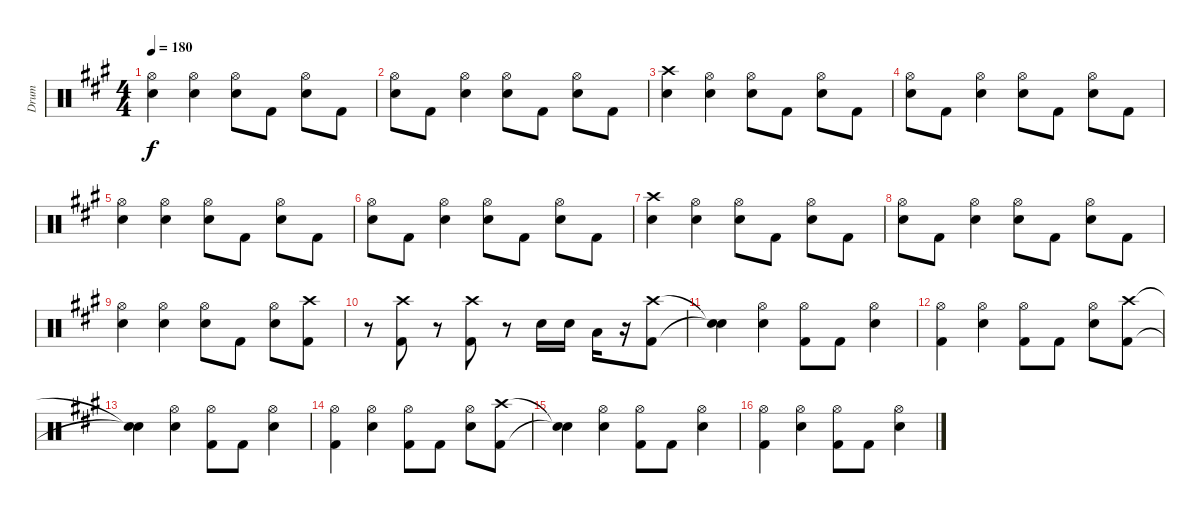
\track ("Drum" "Drum") {instrument percussion}
\staff {score}
\articulation defaults
\ts (4 4)
\tempo 180
\clef neutral
\ks a
("Hi-Hat (open)" "Snare (hit) 2").4{dy f} ("Hi-Hat (open)" "Snare (hit) 2").4 ("Hi-Hat (open)" "Snare (hit) 2").8 "Kick (hit) 2".8 ("Hi-Hat (open)" "Snare (hit) 2").8 "Kick (hit) 2".8 |
("Hi-Hat (open)" "Snare (hit) 2").8 "Kick (hit) 2".8 ("Hi-Hat (open)" "Snare (hit) 2").4 ("Hi-Hat (open)" "Snare (hit) 2").8 "Kick (hit) 2".8 ("Hi-Hat (open)" "Snare (hit) 2").8 "Kick (hit) 2".8 |
("Crash high (hit)" "Snare (hit) 2").4 ("Hi-Hat (open)" "Snare (hit) 2").4 ("Hi-Hat (open)" "Snare (hit) 2").8 "Kick (hit) 2".8 ("Hi-Hat (open)" "Snare (hit) 2").8 "Kick (hit) 2".8 |
("Hi-Hat (open)" "Snare (hit) 2").8 "Kick (hit) 2".8 ("Hi-Hat (open)" "Snare (hit) 2").4 ("Hi-Hat (open)" "Snare (hit) 2").8 "Kick (hit) 2".8 ("Hi-Hat (open)" "Snare (hit) 2").8 "Kick (hit) 2".8 |
("Hi-Hat (open)" "Snare (hit) 2").4 ("Hi-Hat (open)" "Snare (hit) 2").4 ("Hi-Hat (open)" "Snare (hit) 2").8 "Kick (hit) 2".8 ("Hi-Hat (open)" "Snare (hit) 2").8 "Kick (hit) 2".8 |
("Hi-Hat (open)" "Snare (hit) 2").8 "Kick (hit) 2".8 ("Hi-Hat (open)" "Snare (hit) 2").4 ("Hi-Hat (open)" "Snare (hit) 2").8 "Kick (hit) 2".8 ("Hi-Hat (open)" "Snare (hit) 2").8 "Kick (hit) 2".8 |
("Crash high (hit)" "Snare (hit) 2").4 ("Hi-Hat (open)" "Snare (hit) 2").4 ("Hi-Hat (open)" "Snare (hit) 2").8 "Kick (hit) 2".8 ("Hi-Hat (open)" "Snare (hit) 2").8 "Kick (hit) 2".8 |
("Hi-Hat (open)" "Snare (hit) 2").8 "Kick (hit) 2".8 ("Hi-Hat (open)" "Snare (hit) 2").4 ("Hi-Hat (open)" "Snare (hit) 2").8 "Kick (hit) 2".8 ("Hi-Hat (open)" "Snare (hit) 2").8 "Kick (hit) 2".8 |
("Hi-Hat (open)" "Snare (hit) 2").4 ("Hi-Hat (open)" "Snare (hit) 2").4 ("Hi-Hat (open)" "Snare (hit) 2").8 "Kick (hit) 2".8 ("Hi-Hat (open)" "Snare (hit) 2").8 ("Crash high (hit)" "Kick (hit) 2").8 |
r.8 ("Crash high (hit)" "Kick (hit) 2").8 r.8 ("Crash high (hit)" "Kick (hit) 2").8 r.8 "Snare (hit) 2".16 "Snare (hit) 2".16 "Low Tom (hit)".16 r.16 ("Crash high (hit)" "Kick (hit) 2").8 |
("Snare (hit)"{t} "Snare (hit)"{t}).4 ("Hi-Hat (open)" "Snare (hit) 2").4 ("Hi-Hat (open)" "Kick (hit) 2").8 "Kick (hit) 2".8 ("Hi-Hat (open)" "Snare (hit) 2").4 |
("Hi-Hat (open)" "Kick (hit) 2").4 ("Hi-Hat (open)" "Snare (hit) 2").4 ("Hi-Hat (open)" "Kick (hit) 2").8 "Kick (hit) 2".8 ("Hi-Hat (open)" "Snare (hit) 2").8 ("Crash high (hit)" "Kick (hit) 2").8 |
("Snare (hit)"{t} "Snare (hit)"{t}).4 ("Hi-Hat (open)" "Snare (hit) 2").4 ("Hi-Hat (open)" "Kick (hit) 2").8 "Kick (hit) 2".8 ("Hi-Hat (open)" "Snare (hit) 2").4 |
("Hi-Hat (open)" "Kick (hit) 2").4 ("Hi-Hat (open)" "Snare (hit) 2").4 ("Hi-Hat (open)" "Kick (hit) 2").8 "Kick (hit) 2".8 ("Hi-Hat (open)" "Snare (hit) 2").8 ("Crash high (hit)" "Kick (hit) 2").8 |
("Snare (hit)"{t} "Snare (hit)"{t}).4 ("Hi-Hat (open)" "Snare (hit) 2").4 ("Hi-Hat (open)" "Kick (hit) 2").8 "Kick (hit) 2".8 ("Hi-Hat (open)" "Snare (hit) 2").4 |
("Hi-Hat (open)" "Kick (hit) 2").4 ("Hi-Hat (open)" "Snare (hit) 2").4 ("Hi-Hat (open)" "Kick (hit) 2").8 "Kick (hit) 2".8 ("Hi-Hat (open)" "Snare (hit) 2").4
